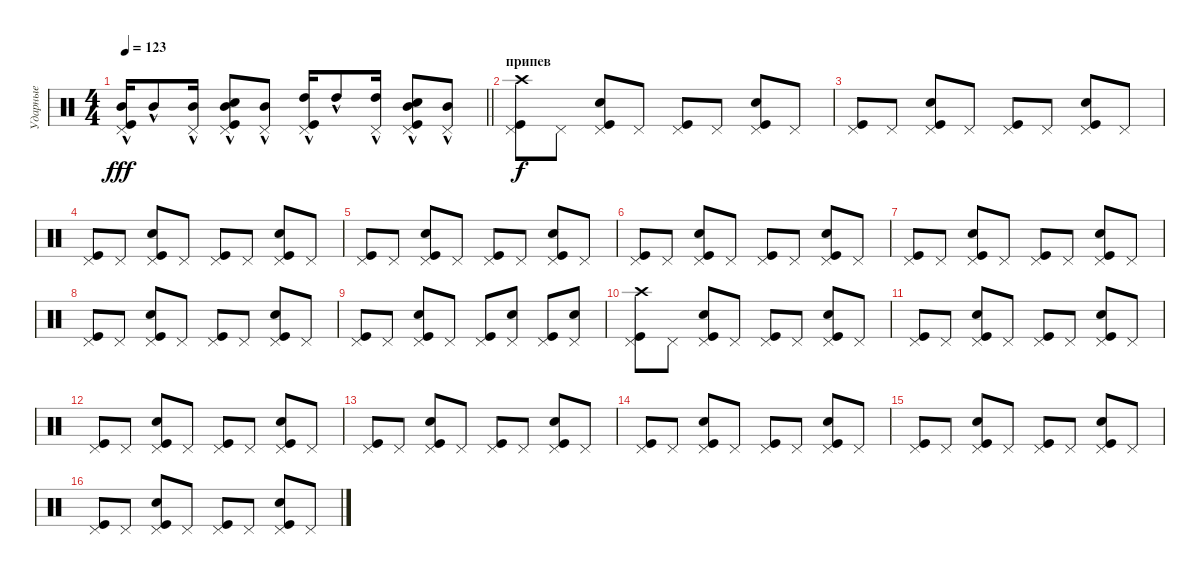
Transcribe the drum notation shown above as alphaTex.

\track ("Ударные" "Ударные") {instrument percussion}
\staff {score}
\articulation defaults
\ts (4 4)
\tempo 123
\clef neutral
\barLineRight lightlight
\ks c
("Mid Tom (hit)"{hac} "Kick (hit)" "Pedal Hi-Hat (hit)").16{dy fff} "Mid Tom (hit)"{hac}.8 ("Mid Tom (hit)"{hac} "Pedal Hi-Hat (hit)").16 ("Mid Tom (hit)"{hac} "Kick (hit)" "Pedal Hi-Hat (hit)" "Snare (hit) 2").8 ("Mid Tom (hit)"{hac} "Pedal Hi-Hat (hit)").8 ("High Tom (hit)"{hac} "Kick (hit)" "Pedal Hi-Hat (hit)").16 "High Tom (hit)"{hac}.8 ("High Tom (hit)"{hac} "Pedal Hi-Hat (hit)").16 ("Mid Tom (hit)"{hac} "Kick (hit)" "Pedal Hi-Hat (hit)" "Snare (hit) 2").8 ("Mid Tom (hit)"{hac} "Pedal Hi-Hat (hit)").8 |
\section ("" "припев")
("Pedal Hi-Hat (hit)" "Kick (hit)" "Crash high (hit)").8{dy f} "Pedal Hi-Hat (hit)".8 ("Pedal Hi-Hat (hit)" "Kick (hit)" "Snare (hit) 2").8 "Pedal Hi-Hat (hit)".8 ("Pedal Hi-Hat (hit)" "Kick (hit)").8 "Pedal Hi-Hat (hit)".8 ("Pedal Hi-Hat (hit)" "Kick (hit)" "Snare (hit) 2").8 "Pedal Hi-Hat (hit)".8 |
("Pedal Hi-Hat (hit)" "Kick (hit)").8 "Pedal Hi-Hat (hit)".8 ("Pedal Hi-Hat (hit)" "Kick (hit)" "Snare (hit) 2").8 "Pedal Hi-Hat (hit)".8 ("Pedal Hi-Hat (hit)" "Kick (hit)").8 "Pedal Hi-Hat (hit)".8 ("Pedal Hi-Hat (hit)" "Kick (hit)" "Snare (hit) 2").8 "Pedal Hi-Hat (hit)".8 |
("Pedal Hi-Hat (hit)" "Kick (hit)").8 "Pedal Hi-Hat (hit)".8 ("Pedal Hi-Hat (hit)" "Kick (hit)" "Snare (hit) 2").8 "Pedal Hi-Hat (hit)".8 ("Pedal Hi-Hat (hit)" "Kick (hit)").8 "Pedal Hi-Hat (hit)".8 ("Pedal Hi-Hat (hit)" "Kick (hit)" "Snare (hit) 2").8 "Pedal Hi-Hat (hit)".8 |
("Pedal Hi-Hat (hit)" "Kick (hit)").8 "Pedal Hi-Hat (hit)".8 ("Pedal Hi-Hat (hit)" "Kick (hit)" "Snare (hit) 2").8 "Pedal Hi-Hat (hit)".8 ("Pedal Hi-Hat (hit)" "Kick (hit)").8 "Pedal Hi-Hat (hit)".8 ("Pedal Hi-Hat (hit)" "Kick (hit)" "Snare (hit) 2").8 "Pedal Hi-Hat (hit)".8 |
("Pedal Hi-Hat (hit)" "Kick (hit)").8 "Pedal Hi-Hat (hit)".8 ("Pedal Hi-Hat (hit)" "Kick (hit)" "Snare (hit) 2").8 "Pedal Hi-Hat (hit)".8 ("Pedal Hi-Hat (hit)" "Kick (hit)").8 "Pedal Hi-Hat (hit)".8 ("Pedal Hi-Hat (hit)" "Kick (hit)" "Snare (hit) 2").8 "Pedal Hi-Hat (hit)".8 |
("Pedal Hi-Hat (hit)" "Kick (hit)").8 "Pedal Hi-Hat (hit)".8 ("Pedal Hi-Hat (hit)" "Kick (hit)" "Snare (hit) 2").8 "Pedal Hi-Hat (hit)".8 ("Pedal Hi-Hat (hit)" "Kick (hit)").8 "Pedal Hi-Hat (hit)".8 ("Pedal Hi-Hat (hit)" "Kick (hit)" "Snare (hit) 2").8 "Pedal Hi-Hat (hit)".8 |
("Pedal Hi-Hat (hit)" "Kick (hit)").8 "Pedal Hi-Hat (hit)".8 ("Pedal Hi-Hat (hit)" "Kick (hit)" "Snare (hit) 2").8 "Pedal Hi-Hat (hit)".8 ("Pedal Hi-Hat (hit)" "Kick (hit)").8 "Pedal Hi-Hat (hit)".8 ("Pedal Hi-Hat (hit)" "Kick (hit)" "Snare (hit) 2").8 "Pedal Hi-Hat (hit)".8 |
("Pedal Hi-Hat (hit)" "Kick (hit)").8 "Pedal Hi-Hat (hit)".8 ("Pedal Hi-Hat (hit)" "Kick (hit)" "Snare (hit) 2").8 "Pedal Hi-Hat (hit)".8 ("Pedal Hi-Hat (hit)" "Kick (hit)").8 ("Pedal Hi-Hat (hit)" "Snare (hit) 2").8 ("Pedal Hi-Hat (hit)" "Kick (hit)").8 ("Pedal Hi-Hat (hit)" "Snare (hit) 2").8 |
("Pedal Hi-Hat (hit)" "Kick (hit)" "Crash high (hit)").8 "Pedal Hi-Hat (hit)".8 ("Pedal Hi-Hat (hit)" "Kick (hit)" "Snare (hit) 2").8 "Pedal Hi-Hat (hit)".8 ("Pedal Hi-Hat (hit)" "Kick (hit)").8 "Pedal Hi-Hat (hit)".8 ("Pedal Hi-Hat (hit)" "Kick (hit)" "Snare (hit) 2").8 "Pedal Hi-Hat (hit)".8 |
("Pedal Hi-Hat (hit)" "Kick (hit)").8 "Pedal Hi-Hat (hit)".8 ("Pedal Hi-Hat (hit)" "Kick (hit)" "Snare (hit) 2").8 "Pedal Hi-Hat (hit)".8 ("Pedal Hi-Hat (hit)" "Kick (hit)").8 "Pedal Hi-Hat (hit)".8 ("Pedal Hi-Hat (hit)" "Kick (hit)" "Snare (hit) 2").8 "Pedal Hi-Hat (hit)".8 |
("Pedal Hi-Hat (hit)" "Kick (hit)").8 "Pedal Hi-Hat (hit)".8 ("Pedal Hi-Hat (hit)" "Kick (hit)" "Snare (hit) 2").8 "Pedal Hi-Hat (hit)".8 ("Pedal Hi-Hat (hit)" "Kick (hit)").8 "Pedal Hi-Hat (hit)".8 ("Pedal Hi-Hat (hit)" "Kick (hit)" "Snare (hit) 2").8 "Pedal Hi-Hat (hit)".8 |
("Pedal Hi-Hat (hit)" "Kick (hit)").8 "Pedal Hi-Hat (hit)".8 ("Pedal Hi-Hat (hit)" "Kick (hit)" "Snare (hit) 2").8 "Pedal Hi-Hat (hit)".8 ("Pedal Hi-Hat (hit)" "Kick (hit)").8 "Pedal Hi-Hat (hit)".8 ("Pedal Hi-Hat (hit)" "Kick (hit)" "Snare (hit) 2").8 "Pedal Hi-Hat (hit)".8 |
("Pedal Hi-Hat (hit)" "Kick (hit)").8 "Pedal Hi-Hat (hit)".8 ("Pedal Hi-Hat (hit)" "Kick (hit)" "Snare (hit) 2").8 "Pedal Hi-Hat (hit)".8 ("Pedal Hi-Hat (hit)" "Kick (hit)").8 "Pedal Hi-Hat (hit)".8 ("Pedal Hi-Hat (hit)" "Kick (hit)" "Snare (hit) 2").8 "Pedal Hi-Hat (hit)".8 |
("Pedal Hi-Hat (hit)" "Kick (hit)").8 "Pedal Hi-Hat (hit)".8 ("Pedal Hi-Hat (hit)" "Kick (hit)" "Snare (hit) 2").8 "Pedal Hi-Hat (hit)".8 ("Pedal Hi-Hat (hit)" "Kick (hit)").8 "Pedal Hi-Hat (hit)".8 ("Pedal Hi-Hat (hit)" "Kick (hit)" "Snare (hit) 2").8 "Pedal Hi-Hat (hit)".8 |
("Pedal Hi-Hat (hit)" "Kick (hit)").8 "Pedal Hi-Hat (hit)".8 ("Pedal Hi-Hat (hit)" "Kick (hit)" "Snare (hit) 2").8 "Pedal Hi-Hat (hit)".8 ("Pedal Hi-Hat (hit)" "Kick (hit)").8 "Pedal Hi-Hat (hit)".8 ("Pedal Hi-Hat (hit)" "Kick (hit)" "Snare (hit) 2").8 "Pedal Hi-Hat (hit)".8
